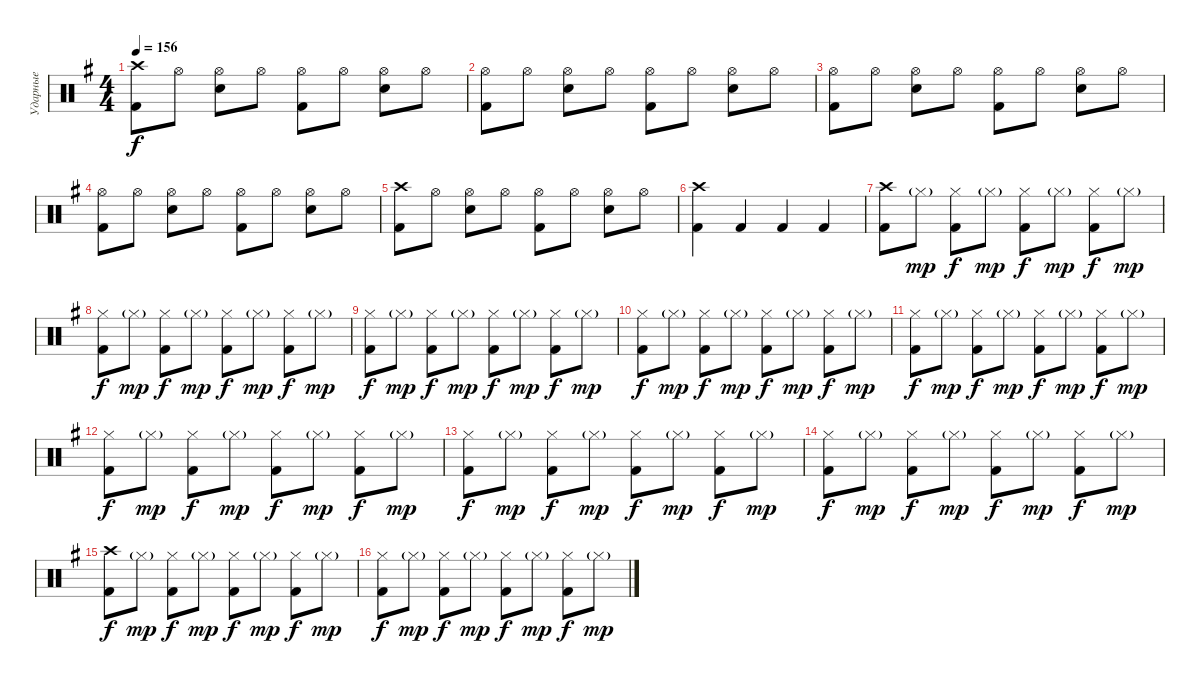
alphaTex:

\track ("Ударные" "Ударные") {instrument percussion}
\staff {score}
\articulation defaults
\ts (4 4)
\tempo 156
\clef neutral
\ks g
("Crash high (hit)" "Kick (hit) 2").8{dy f} "Hi-Hat (open)".8 ("Hi-Hat (open)" "Electric Snare (hit)").8 "Hi-Hat (open)".8 ("Hi-Hat (open)" "Kick (hit) 2").8 "Hi-Hat (open)".8 ("Hi-Hat (open)" "Electric Snare (hit)").8 "Hi-Hat (open)".8 |
("Hi-Hat (open)" "Kick (hit) 2").8 "Hi-Hat (open)".8 ("Hi-Hat (open)" "Electric Snare (hit)").8 "Hi-Hat (open)".8 ("Hi-Hat (open)" "Kick (hit) 2").8 "Hi-Hat (open)".8 ("Hi-Hat (open)" "Electric Snare (hit)").8 "Hi-Hat (open)".8 |
("Hi-Hat (open)" "Kick (hit) 2").8 "Hi-Hat (open)".8 ("Hi-Hat (open)" "Electric Snare (hit)").8 "Hi-Hat (open)".8 ("Hi-Hat (open)" "Kick (hit) 2").8 "Hi-Hat (open)".8 ("Hi-Hat (open)" "Electric Snare (hit)").8 "Hi-Hat (open)".8 |
("Hi-Hat (open)" "Kick (hit) 2").8 "Hi-Hat (open)".8 ("Hi-Hat (open)" "Electric Snare (hit)").8 "Hi-Hat (open)".8 ("Hi-Hat (open)" "Kick (hit) 2").8 "Hi-Hat (open)".8 ("Hi-Hat (open)" "Electric Snare (hit)").8 "Hi-Hat (open)".8 |
("Crash high (hit)" "Kick (hit) 2").8 "Hi-Hat (open)".8 ("Hi-Hat (open)" "Electric Snare (hit)").8 "Hi-Hat (open)".8 ("Hi-Hat (open)" "Kick (hit) 2").8 "Hi-Hat (open)".8 ("Hi-Hat (open)" "Electric Snare (hit)").8 "Hi-Hat (open)".8 |
("Kick (hit) 2" "Crash high (hit)").4 "Kick (hit) 2".4 "Kick (hit) 2".4 "Kick (hit) 2".4 |
("Kick (hit) 2" "Crash high (hit)").8 "Hi-Hat (closed)"{g}.8{dy mp} ("Kick (hit) 2" "Hi-Hat (closed)").8{dy f} "Hi-Hat (closed)"{g}.8{dy mp} ("Kick (hit) 2" "Hi-Hat (closed)").8{dy f} "Hi-Hat (closed)"{g}.8{dy mp} ("Kick (hit) 2" "Hi-Hat (closed)").8{dy f} "Hi-Hat (closed)"{g}.8{dy mp} |
("Kick (hit) 2" "Hi-Hat (closed)").8{dy f} "Hi-Hat (closed)"{g}.8{dy mp} ("Kick (hit) 2" "Hi-Hat (closed)").8{dy f} "Hi-Hat (closed)"{g}.8{dy mp} ("Kick (hit) 2" "Hi-Hat (closed)").8{dy f} "Hi-Hat (closed)"{g}.8{dy mp} ("Kick (hit) 2" "Hi-Hat (closed)").8{dy f} "Hi-Hat (closed)"{g}.8{dy mp} |
("Kick (hit) 2" "Hi-Hat (closed)").8{dy f} "Hi-Hat (closed)"{g}.8{dy mp} ("Kick (hit) 2" "Hi-Hat (closed)").8{dy f} "Hi-Hat (closed)"{g}.8{dy mp} ("Kick (hit) 2" "Hi-Hat (closed)").8{dy f} "Hi-Hat (closed)"{g}.8{dy mp} ("Kick (hit) 2" "Hi-Hat (closed)").8{dy f} "Hi-Hat (closed)"{g}.8{dy mp} |
("Kick (hit) 2" "Hi-Hat (closed)").8{dy f} "Hi-Hat (closed)"{g}.8{dy mp} ("Kick (hit) 2" "Hi-Hat (closed)").8{dy f} "Hi-Hat (closed)"{g}.8{dy mp} ("Kick (hit) 2" "Hi-Hat (closed)").8{dy f} "Hi-Hat (closed)"{g}.8{dy mp} ("Kick (hit) 2" "Hi-Hat (closed)").8{dy f} "Hi-Hat (closed)"{g}.8{dy mp} |
("Kick (hit) 2" "Hi-Hat (closed)").8{dy f} "Hi-Hat (closed)"{g}.8{dy mp} ("Kick (hit) 2" "Hi-Hat (closed)").8{dy f} "Hi-Hat (closed)"{g}.8{dy mp} ("Kick (hit) 2" "Hi-Hat (closed)").8{dy f} "Hi-Hat (closed)"{g}.8{dy mp} ("Kick (hit) 2" "Hi-Hat (closed)").8{dy f} "Hi-Hat (closed)"{g}.8{dy mp} |
("Kick (hit) 2" "Hi-Hat (closed)").8{dy f} "Hi-Hat (closed)"{g}.8{dy mp} ("Kick (hit) 2" "Hi-Hat (closed)").8{dy f} "Hi-Hat (closed)"{g}.8{dy mp} ("Kick (hit) 2" "Hi-Hat (closed)").8{dy f} "Hi-Hat (closed)"{g}.8{dy mp} ("Kick (hit) 2" "Hi-Hat (closed)").8{dy f} "Hi-Hat (closed)"{g}.8{dy mp} |
("Kick (hit) 2" "Hi-Hat (closed)").8{dy f} "Hi-Hat (closed)"{g}.8{dy mp} ("Kick (hit) 2" "Hi-Hat (closed)").8{dy f} "Hi-Hat (closed)"{g}.8{dy mp} ("Kick (hit) 2" "Hi-Hat (closed)").8{dy f} "Hi-Hat (closed)"{g}.8{dy mp} ("Kick (hit) 2" "Hi-Hat (closed)").8{dy f} "Hi-Hat (closed)"{g}.8{dy mp} |
("Kick (hit) 2" "Hi-Hat (closed)").8{dy f} "Hi-Hat (closed)"{g}.8{dy mp} ("Kick (hit) 2" "Hi-Hat (closed)").8{dy f} "Hi-Hat (closed)"{g}.8{dy mp} ("Kick (hit) 2" "Hi-Hat (closed)").8{dy f} "Hi-Hat (closed)"{g}.8{dy mp} ("Kick (hit) 2" "Hi-Hat (closed)").8{dy f} "Hi-Hat (closed)"{g}.8{dy mp} |
("Kick (hit) 2" "Crash high (hit)").8{dy f} "Hi-Hat (closed)"{g}.8{dy mp} ("Kick (hit) 2" "Hi-Hat (closed)").8{dy f} "Hi-Hat (closed)"{g}.8{dy mp} ("Kick (hit) 2" "Hi-Hat (closed)").8{dy f} "Hi-Hat (closed)"{g}.8{dy mp} ("Kick (hit) 2" "Hi-Hat (closed)").8{dy f} "Hi-Hat (closed)"{g}.8{dy mp} |
("Kick (hit) 2" "Hi-Hat (closed)").8{dy f} "Hi-Hat (closed)"{g}.8{dy mp} ("Kick (hit) 2" "Hi-Hat (closed)").8{dy f} "Hi-Hat (closed)"{g}.8{dy mp} ("Kick (hit) 2" "Hi-Hat (closed)").8{dy f} "Hi-Hat (closed)"{g}.8{dy mp} ("Kick (hit) 2" "Hi-Hat (closed)").8{dy f} "Hi-Hat (closed)"{g}.8{dy mp}
